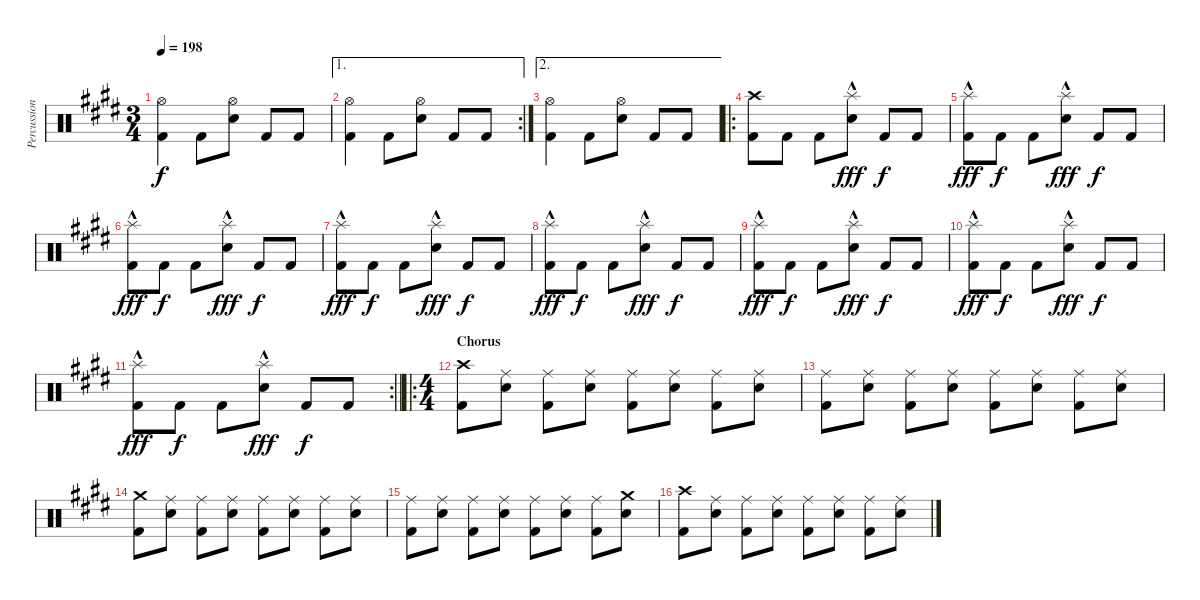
\track ("Percussion" "Percussion") {instrument percussion}
\staff {score}
\articulation defaults
\ts (3 4)
\tempo 198
\clef neutral
\ks e
("Hi-Hat (open)" "Kick (hit) 2").4{dy f} "Kick (hit) 2".8 ("Hi-Hat (open)" "Snare (hit) 2").8 "Kick (hit) 2".8 "Kick (hit) 2".8 |
\ae 1
\rc 2
("Hi-Hat (open)" "Kick (hit) 2").4 "Kick (hit) 2".8 ("Hi-Hat (open)" "Snare (hit) 2").8 "Kick (hit) 2".8 "Kick (hit) 2".8 |
\ae 2
("Hi-Hat (open)" "Kick (hit) 2").4 "Kick (hit) 2".8 ("Hi-Hat (open)" "Snare (hit) 2").8 "Kick (hit) 2".8 "Kick (hit) 2".8 |
\ro
("Crash high (hit)" "Kick (hit) 2").8 "Kick (hit) 2".8 "Kick (hit) 2".8 ("Splash (hit)"{hac} "Snare (hit) 2").8{dy fff} "Kick (hit) 2".8{dy f} "Kick (hit) 2".8 |
("Splash (hit)"{hac} "Kick (hit) 2").8{dy fff} "Kick (hit) 2".8{dy f} "Kick (hit) 2".8 ("Splash (hit)"{hac} "Snare (hit) 2").8{dy fff} "Kick (hit) 2".8{dy f} "Kick (hit) 2".8 |
("Splash (hit)"{hac} "Kick (hit) 2").8{dy fff} "Kick (hit) 2".8{dy f} "Kick (hit) 2".8 ("Splash (hit)"{hac} "Snare (hit) 2").8{dy fff} "Kick (hit) 2".8{dy f} "Kick (hit) 2".8 |
("Splash (hit)"{hac} "Kick (hit) 2").8{dy fff} "Kick (hit) 2".8{dy f} "Kick (hit) 2".8 ("Splash (hit)"{hac} "Snare (hit) 2").8{dy fff} "Kick (hit) 2".8{dy f} "Kick (hit) 2".8 |
("Splash (hit)"{hac} "Kick (hit) 2").8{dy fff} "Kick (hit) 2".8{dy f} "Kick (hit) 2".8 ("Splash (hit)"{hac} "Snare (hit) 2").8{dy fff} "Kick (hit) 2".8{dy f} "Kick (hit) 2".8 |
("Splash (hit)"{hac} "Kick (hit) 2").8{dy fff} "Kick (hit) 2".8{dy f} "Kick (hit) 2".8 ("Splash (hit)"{hac} "Snare (hit) 2").8{dy fff} "Kick (hit) 2".8{dy f} "Kick (hit) 2".8 |
("Splash (hit)"{hac} "Kick (hit) 2").8{dy fff} "Kick (hit) 2".8{dy f} "Kick (hit) 2".8 ("Splash (hit)"{hac} "Snare (hit) 2").8{dy fff} "Kick (hit) 2".8{dy f} "Kick (hit) 2".8 |
\rc 2
\barLineRight lightlight
("Splash (hit)"{hac} "Kick (hit) 2").8{dy fff} "Kick (hit) 2".8{dy f} "Kick (hit) 2".8 ("Splash (hit)"{hac} "Snare (hit) 2").8{dy fff} "Kick (hit) 2".8{dy f} "Kick (hit) 2".8 |
\ro
\ts (4 4)
\section ("" "Chorus")
("Crash high (hit)" "Kick (hit) 2").8 ("Ride (middle)" "Snare (hit) 2").8 ("Ride (middle)" "Kick (hit) 2").8 ("Ride (middle)" "Snare (hit) 2").8 ("Ride (middle)" "Kick (hit) 2").8 ("Ride (middle)" "Snare (hit) 2").8 ("Ride (middle)" "Kick (hit) 2").8 ("Ride (middle)" "Snare (hit) 2").8 |
("Ride (middle)" "Kick (hit) 2").8 ("Ride (middle)" "Snare (hit) 2").8 ("Ride (middle)" "Kick (hit) 2").8 ("Ride (middle)" "Snare (hit) 2").8 ("Ride (middle)" "Kick (hit) 2").8 ("Ride (middle)" "Snare (hit) 2").8 ("Ride (middle)" "Kick (hit) 2").8 ("Ride (middle)" "Snare (hit) 2").8 |
("Crash medium (hit)" "Kick (hit) 2").8 ("Ride (middle)" "Snare (hit) 2").8 ("Ride (middle)" "Kick (hit) 2").8 ("Ride (middle)" "Snare (hit) 2").8 ("Ride (middle)" "Kick (hit) 2").8 ("Ride (middle)" "Snare (hit) 2").8 ("Ride (middle)" "Kick (hit) 2").8 ("Ride (middle)" "Snare (hit) 2").8 |
("Ride (middle)" "Kick (hit) 2").8 ("Ride (middle)" "Snare (hit) 2").8 ("Ride (middle)" "Kick (hit) 2").8 ("Ride (middle)" "Snare (hit) 2").8 ("Ride (middle)" "Kick (hit) 2").8 ("Ride (middle)" "Snare (hit) 2").8 ("Ride (middle)" "Kick (hit) 2").8 ("Crash medium (hit)" "Snare (hit) 2").8 |
("Crash high (hit)" "Kick (hit) 2").8 ("Ride (middle)" "Snare (hit) 2").8 ("Ride (middle)" "Kick (hit) 2").8 ("Ride (middle)" "Snare (hit) 2").8 ("Ride (middle)" "Kick (hit) 2").8 ("Ride (middle)" "Snare (hit) 2").8 ("Ride (middle)" "Kick (hit) 2").8 ("Ride (middle)" "Snare (hit) 2").8
